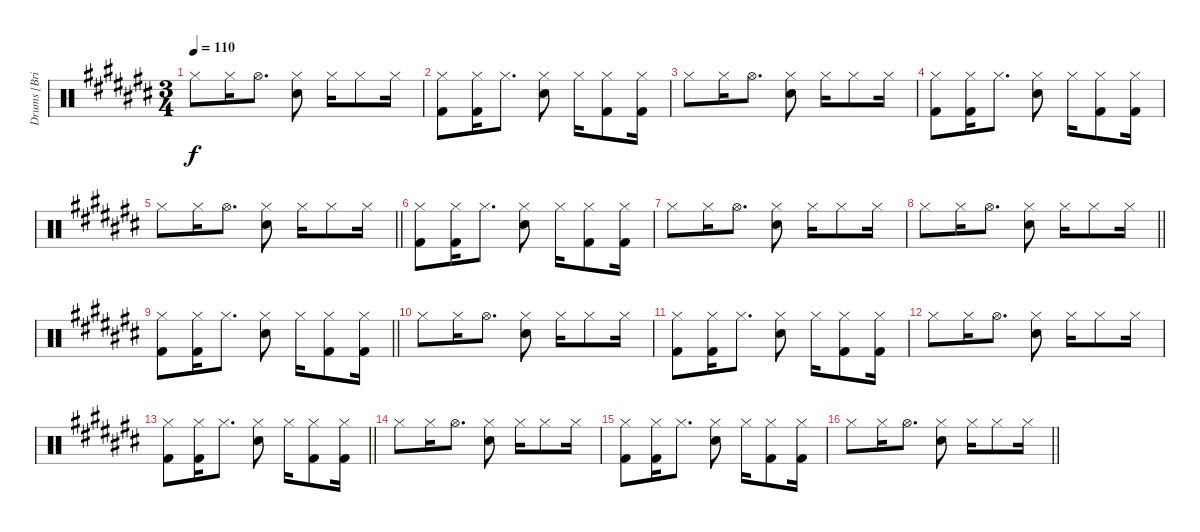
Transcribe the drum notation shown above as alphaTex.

\track ("Drums [Brian \"Brain\" Mantia]" "Drums [Bri") {instrument percussion}
\staff {score}
\articulation defaults
\ts (3 4)
\tempo 110
\clef neutral
\ks c# "Hi-Hat (closed)".8{dy f} "Hi-Hat (closed)".16 "Hi-Hat (open)".8{d}
("Hi-Hat (closed)" "Electric Snare (hit)").8 "Hi-Hat (closed)".16 "Hi-Hat (closed)".8 "Hi-Hat (closed)".16 |
("Hi-Hat (closed)" "Kick (hit) 2").8 ("Hi-Hat (closed)" "Kick (hit) 2").16 "Hi-Hat (closed)".8{d} ("Hi-Hat (closed)" "Electric Snare (hit)").8 "Hi-Hat (closed)".16 ("Hi-Hat (closed)" "Kick (hit) 2").8 ("Hi-Hat (closed)" "Kick (hit) 2").16 |
"Hi-Hat (closed)".8 "Hi-Hat (closed)".16 "Hi-Hat (open)".8{d} ("Hi-Hat (closed)" "Electric Snare (hit)").8 "Hi-Hat (closed)".16 "Hi-Hat (closed)".8 "Hi-Hat (closed)".16 |
("Hi-Hat (closed)" "Kick (hit) 2").8 ("Hi-Hat (closed)" "Kick (hit) 2").16 "Hi-Hat (closed)".8{d} ("Hi-Hat (closed)" "Electric Snare (hit)").8 "Hi-Hat (closed)".16 ("Hi-Hat (closed)" "Kick (hit) 2").8 ("Hi-Hat (closed)" "Kick (hit) 2").16 |
\barLineRight lightlight "Hi-Hat (closed)".8 "Hi-Hat (closed)".16 "Hi-Hat (open)".8{d}
("Hi-Hat (closed)" "Electric Snare (hit)").8 "Hi-Hat (closed)".16 "Hi-Hat (closed)".8 "Hi-Hat (closed)".16 |
("Hi-Hat (closed)" "Kick (hit) 2").8 ("Hi-Hat (closed)" "Kick (hit) 2").16 "Hi-Hat (closed)".8{d} ("Hi-Hat (closed)" "Electric Snare (hit)").8 "Hi-Hat (closed)".16 ("Hi-Hat (closed)" "Kick (hit) 2").8 ("Hi-Hat (closed)" "Kick (hit) 2").16 |
"Hi-Hat (closed)".8 "Hi-Hat (closed)".16 "Hi-Hat (open)".8{d} ("Hi-Hat (closed)" "Electric Snare (hit)").8 "Hi-Hat (closed)".16 "Hi-Hat (closed)".8 "Hi-Hat (closed)".16 |
\barLineRight lightlight "Hi-Hat (closed)".8 "Hi-Hat (closed)".16 "Hi-Hat (open)".8{d}
("Hi-Hat (closed)" "Electric Snare (hit)").8 "Hi-Hat (closed)".16 "Hi-Hat (closed)".8 "Hi-Hat (closed)".16 |
\section ("" "")
\barLineRight lightlight
("Hi-Hat (closed)" "Kick (hit) 2").8 ("Hi-Hat (closed)" "Kick (hit) 2").16 "Hi-Hat (closed)".8{d} ("Hi-Hat (closed)" "Electric Snare (hit)").8 "Hi-Hat (closed)".16 ("Hi-Hat (closed)" "Kick (hit) 2").8 ("Hi-Hat (closed)" "Kick (hit) 2").16 |
"Hi-Hat (closed)".8 "Hi-Hat (closed)".16 "Hi-Hat (open)".8{d} ("Hi-Hat (closed)" "Electric Snare (hit)").8 "Hi-Hat (closed)".16 "Hi-Hat (closed)".8 "Hi-Hat (closed)".16 |
("Hi-Hat (closed)" "Kick (hit) 2").8 ("Hi-Hat (closed)" "Kick (hit) 2").16 "Hi-Hat (closed)".8{d} ("Hi-Hat (closed)" "Electric Snare (hit)").8 "Hi-Hat (closed)".16 ("Hi-Hat (closed)" "Kick (hit) 2").8 ("Hi-Hat (closed)" "Kick (hit) 2").16 |
"Hi-Hat (closed)".8 "Hi-Hat (closed)".16 "Hi-Hat (open)".8{d} ("Hi-Hat (closed)" "Electric Snare (hit)").8 "Hi-Hat (closed)".16 "Hi-Hat (closed)".8 "Hi-Hat (closed)".16 |
\barLineRight lightlight
("Hi-Hat (closed)" "Kick (hit) 2").8 ("Hi-Hat (closed)" "Kick (hit) 2").16 "Hi-Hat (closed)".8{d} ("Hi-Hat (closed)" "Electric Snare (hit)").8 "Hi-Hat (closed)".16 ("Hi-Hat (closed)" "Kick (hit) 2").8 ("Hi-Hat (closed)" "Kick (hit) 2").16 |
"Hi-Hat (closed)".8 "Hi-Hat (closed)".16 "Hi-Hat (open)".8{d} ("Hi-Hat (closed)" "Electric Snare (hit)").8 "Hi-Hat (closed)".16 "Hi-Hat (closed)".8 "Hi-Hat (closed)".16 |
("Hi-Hat (closed)" "Kick (hit) 2").8 ("Hi-Hat (closed)" "Kick (hit) 2").16 "Hi-Hat (closed)".8{d} ("Hi-Hat (closed)" "Electric Snare (hit)").8 "Hi-Hat (closed)".16 ("Hi-Hat (closed)" "Kick (hit) 2").8 ("Hi-Hat (closed)" "Kick (hit) 2").16 |
\barLineRight lightlight "Hi-Hat (closed)".8 "Hi-Hat (closed)".16 "Hi-Hat (open)".8{d}
("Hi-Hat (closed)" "Electric Snare (hit)").8 "Hi-Hat (closed)".16 "Hi-Hat (closed)".8 "Hi-Hat (closed)".16
